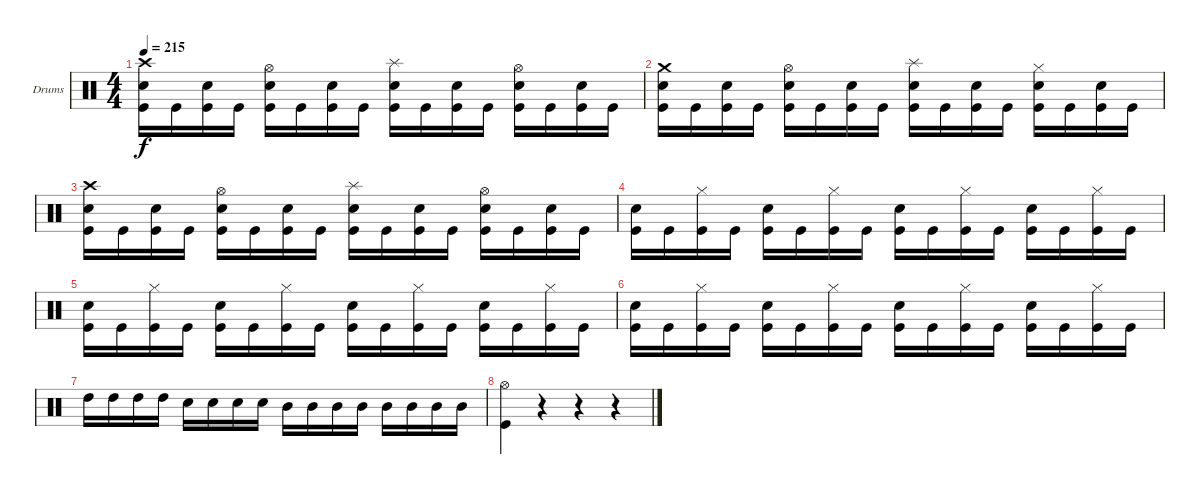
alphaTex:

\defaultSystemsLayout 4
\bracketExtendMode groupsimilarinstruments
\firstSystemTrackNameOrientation horizontal
\otherSystemsTrackNameOrientation horizontal
\track ("Trey Williams" "Drums") {instrument percussion}
\staff {score}
\articulation defaults
\ts (4 4)
\tempo 215
\clef neutral
\ks c
("Kick (hit)" "Snare (hit) 2" "Crash high (hit)").16{dy f} "Kick (hit)".16 ("Kick (hit)" "Snare (hit) 2").16 "Kick (hit)".16 ("Kick (hit)" "Snare (hit) 2" "Hi-Hat (open)").16 "Kick (hit)".16 ("Kick (hit)" "Snare (hit) 2").16 "Kick (hit)".16 ("Kick (hit)" "Snare (hit) 2" "Splash (hit)").16 "Kick (hit)".16 ("Kick (hit)" "Snare (hit) 2").16 "Kick (hit)".16 ("Kick (hit)" "Snare (hit) 2" "Hi-Hat (open)").16 "Kick (hit)".16 ("Kick (hit)" "Snare (hit) 2").16 "Kick (hit)".16 |
("Kick (hit)" "Snare (hit) 2" "Crash medium (hit)").16 "Kick (hit)".16 ("Kick (hit)" "Snare (hit) 2").16 "Kick (hit)".16 ("Kick (hit)" "Snare (hit) 2" "Hi-Hat (open)").16 "Kick (hit)".16 ("Kick (hit)" "Snare (hit) 2").16 "Kick (hit)".16 ("Kick (hit)" "Snare (hit) 2" "Splash (hit)").16 "Kick (hit)".16 ("Kick (hit)" "Snare (hit) 2").16 "Kick (hit)".16 ("Kick (hit)" "Snare (hit) 2" "Hi-Hat (closed)").16 "Kick (hit)".16 ("Kick (hit)" "Snare (hit) 2").16 "Kick (hit)".16 |
("Kick (hit)" "Snare (hit) 2" "Crash high (hit)").16 "Kick (hit)".16 ("Kick (hit)" "Snare (hit) 2").16 "Kick (hit)".16 ("Kick (hit)" "Snare (hit) 2" "Hi-Hat (open)").16 "Kick (hit)".16 ("Kick (hit)" "Snare (hit) 2").16 "Kick (hit)".16 ("Kick (hit)" "Snare (hit) 2" "Splash (hit)").16 "Kick (hit)".16 ("Kick (hit)" "Snare (hit) 2").16 "Kick (hit)".16 ("Kick (hit)" "Snare (hit) 2" "Hi-Hat (open)").16 "Kick (hit)".16 ("Kick (hit)" "Snare (hit) 2").16 "Kick (hit)".16 |
("Kick (hit)" "Snare (hit) 2").16 "Kick (hit)".16 ("Kick (hit)" "Hi-Hat (closed)").16 "Kick (hit)".16 ("Kick (hit)" "Snare (hit) 2").16 "Kick (hit)".16 ("Kick (hit)" "Hi-Hat (closed)").16 "Kick (hit)".16 ("Kick (hit)" "Snare (hit) 2").16 "Kick (hit)".16 ("Kick (hit)" "Hi-Hat (closed)").16 "Kick (hit)".16 ("Kick (hit)" "Snare (hit) 2").16 "Kick (hit)".16 ("Kick (hit)" "Hi-Hat (closed)").16 "Kick (hit)".16 |
("Kick (hit)" "Snare (hit) 2").16 "Kick (hit)".16 ("Kick (hit)" "Hi-Hat (closed)").16 "Kick (hit)".16 ("Kick (hit)" "Snare (hit) 2").16 "Kick (hit)".16 ("Kick (hit)" "Hi-Hat (closed)").16 "Kick (hit)".16 ("Kick (hit)" "Snare (hit) 2").16 "Kick (hit)".16 ("Kick (hit)" "Hi-Hat (closed)").16 "Kick (hit)".16 ("Kick (hit)" "Snare (hit) 2").16 "Kick (hit)".16 ("Kick (hit)" "Hi-Hat (closed)").16 "Kick (hit)".16 |
("Kick (hit)" "Snare (hit) 2").16 "Kick (hit)".16 ("Kick (hit)" "Hi-Hat (closed)").16 "Kick (hit)".16 ("Kick (hit)" "Snare (hit) 2").16 "Kick (hit)".16 ("Kick (hit)" "Hi-Hat (closed)").16 "Kick (hit)".16 ("Kick (hit)" "Snare (hit) 2").16 "Kick (hit)".16 ("Kick (hit)" "Hi-Hat (closed)").16 "Kick (hit)".16 ("Kick (hit)" "Snare (hit) 2").16 "Kick (hit)".16 ("Kick (hit)" "Hi-Hat (closed)").16 "Kick (hit)".16 |
"High Tom (hit)".16 "High Tom (hit)".16 "High Tom (hit)".16 "High Tom (hit)".16 "Snare (hit) 2".16 "Snare (hit) 2".16 "Snare (hit) 2".16 "Snare (hit) 2".16 "Mid Tom (hit)".16 "Mid Tom (hit)".16 "Mid Tom (hit)".16 "Mid Tom (hit)".16 "Mid Tom (hit)".16 "Mid Tom (hit)".16 "Mid Tom (hit)".16 "Mid Tom (hit)".16 |
("Kick (hit)" "Hi-Hat (open)").4 r.4 r.4 r.4
